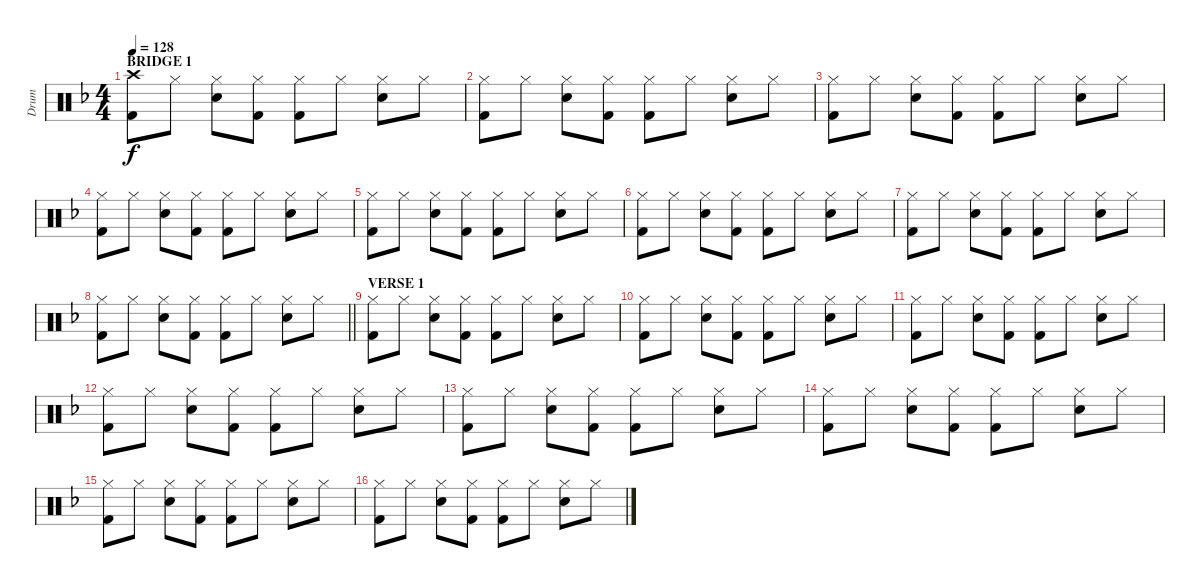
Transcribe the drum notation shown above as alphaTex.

\track ("Drum" "Drum") {instrument percussion}
\staff {score}
\articulation defaults
\ts (4 4)
\section ("" "BRIDGE 1")
\tempo 128
\clef neutral
\ks f
("Crash high (hit)" "Kick (hit) 2").8{dy f} "Hi-Hat (closed)".8 ("Hi-Hat (closed)" "Electric Snare (hit)").8 ("Hi-Hat (closed)" "Kick (hit) 2").8 ("Hi-Hat (closed)" "Kick (hit) 2").8 "Hi-Hat (closed)".8 ("Hi-Hat (closed)" "Electric Snare (hit)").8 "Hi-Hat (closed)".8 |
("Hi-Hat (closed)" "Kick (hit) 2").8 "Hi-Hat (closed)".8 ("Hi-Hat (closed)" "Electric Snare (hit)").8 ("Hi-Hat (closed)" "Kick (hit) 2").8 ("Hi-Hat (closed)" "Kick (hit) 2").8 "Hi-Hat (closed)".8 ("Hi-Hat (closed)" "Electric Snare (hit)").8 "Hi-Hat (closed)".8 |
("Hi-Hat (closed)" "Kick (hit) 2").8 "Hi-Hat (closed)".8 ("Hi-Hat (closed)" "Electric Snare (hit)").8 ("Hi-Hat (closed)" "Kick (hit) 2").8 ("Hi-Hat (closed)" "Kick (hit) 2").8 "Hi-Hat (closed)".8 ("Hi-Hat (closed)" "Electric Snare (hit)").8 "Hi-Hat (closed)".8 |
("Hi-Hat (closed)" "Kick (hit) 2").8 "Hi-Hat (closed)".8 ("Hi-Hat (closed)" "Electric Snare (hit)").8 ("Hi-Hat (closed)" "Kick (hit) 2").8 ("Hi-Hat (closed)" "Kick (hit) 2").8 "Hi-Hat (closed)".8 ("Hi-Hat (closed)" "Electric Snare (hit)").8 "Hi-Hat (closed)".8 |
("Hi-Hat (closed)" "Kick (hit) 2").8 "Hi-Hat (closed)".8 ("Hi-Hat (closed)" "Electric Snare (hit)").8 ("Hi-Hat (closed)" "Kick (hit) 2").8 ("Hi-Hat (closed)" "Kick (hit) 2").8 "Hi-Hat (closed)".8 ("Hi-Hat (closed)" "Electric Snare (hit)").8 "Hi-Hat (closed)".8 |
("Hi-Hat (closed)" "Kick (hit) 2").8 "Hi-Hat (closed)".8 ("Hi-Hat (closed)" "Electric Snare (hit)").8 ("Hi-Hat (closed)" "Kick (hit) 2").8 ("Hi-Hat (closed)" "Kick (hit) 2").8 "Hi-Hat (closed)".8 ("Hi-Hat (closed)" "Electric Snare (hit)").8 "Hi-Hat (closed)".8 |
("Hi-Hat (closed)" "Kick (hit) 2").8 "Hi-Hat (closed)".8 ("Hi-Hat (closed)" "Electric Snare (hit)").8 ("Hi-Hat (closed)" "Kick (hit) 2").8 ("Hi-Hat (closed)" "Kick (hit) 2").8 "Hi-Hat (closed)".8 ("Hi-Hat (closed)" "Electric Snare (hit)").8 "Hi-Hat (closed)".8 |
\barLineRight lightlight
("Hi-Hat (closed)" "Kick (hit) 2").8 "Hi-Hat (closed)".8 ("Hi-Hat (closed)" "Electric Snare (hit)").8 ("Hi-Hat (closed)" "Kick (hit) 2").8 ("Hi-Hat (closed)" "Kick (hit) 2").8 "Hi-Hat (closed)".8 ("Hi-Hat (closed)" "Electric Snare (hit)").8 "Hi-Hat (closed)".8 |
\section ("" "VERSE 1")
("Hi-Hat (closed)" "Kick (hit) 2").8 "Hi-Hat (closed)".8 ("Hi-Hat (closed)" "Electric Snare (hit)").8 ("Hi-Hat (closed)" "Kick (hit) 2").8 ("Hi-Hat (closed)" "Kick (hit) 2").8 "Hi-Hat (closed)".8 ("Hi-Hat (closed)" "Electric Snare (hit)").8 "Hi-Hat (closed)".8 |
("Hi-Hat (closed)" "Kick (hit) 2").8 "Hi-Hat (closed)".8 ("Hi-Hat (closed)" "Electric Snare (hit)").8 ("Hi-Hat (closed)" "Kick (hit) 2").8 ("Hi-Hat (closed)" "Kick (hit) 2").8 "Hi-Hat (closed)".8 ("Hi-Hat (closed)" "Electric Snare (hit)").8 "Hi-Hat (closed)".8 |
("Hi-Hat (closed)" "Kick (hit) 2").8 "Hi-Hat (closed)".8 ("Hi-Hat (closed)" "Electric Snare (hit)").8 ("Hi-Hat (closed)" "Kick (hit) 2").8 ("Hi-Hat (closed)" "Kick (hit) 2").8 "Hi-Hat (closed)".8 ("Hi-Hat (closed)" "Electric Snare (hit)").8 "Hi-Hat (closed)".8 |
("Hi-Hat (closed)" "Kick (hit) 2").8 "Hi-Hat (closed)".8 ("Hi-Hat (closed)" "Electric Snare (hit)").8 ("Hi-Hat (closed)" "Kick (hit) 2").8 ("Hi-Hat (closed)" "Kick (hit) 2").8 "Hi-Hat (closed)".8 ("Hi-Hat (closed)" "Electric Snare (hit)").8 "Hi-Hat (closed)".8 |
("Hi-Hat (closed)" "Kick (hit) 2").8 "Hi-Hat (closed)".8 ("Hi-Hat (closed)" "Electric Snare (hit)").8 ("Hi-Hat (closed)" "Kick (hit) 2").8 ("Hi-Hat (closed)" "Kick (hit) 2").8 "Hi-Hat (closed)".8 ("Hi-Hat (closed)" "Electric Snare (hit)").8 "Hi-Hat (closed)".8 |
("Hi-Hat (closed)" "Kick (hit) 2").8 "Hi-Hat (closed)".8 ("Hi-Hat (closed)" "Electric Snare (hit)").8 ("Hi-Hat (closed)" "Kick (hit) 2").8 ("Hi-Hat (closed)" "Kick (hit) 2").8 "Hi-Hat (closed)".8 ("Hi-Hat (closed)" "Electric Snare (hit)").8 "Hi-Hat (closed)".8 |
("Hi-Hat (closed)" "Kick (hit) 2").8 "Hi-Hat (closed)".8 ("Hi-Hat (closed)" "Electric Snare (hit)").8 ("Hi-Hat (closed)" "Kick (hit) 2").8 ("Hi-Hat (closed)" "Kick (hit) 2").8 "Hi-Hat (closed)".8 ("Hi-Hat (closed)" "Electric Snare (hit)").8 "Hi-Hat (closed)".8 |
("Hi-Hat (closed)" "Kick (hit) 2").8 "Hi-Hat (closed)".8 ("Hi-Hat (closed)" "Electric Snare (hit)").8 ("Hi-Hat (closed)" "Kick (hit) 2").8 ("Hi-Hat (closed)" "Kick (hit) 2").8 "Hi-Hat (closed)".8 ("Hi-Hat (closed)" "Electric Snare (hit)").8 "Hi-Hat (closed)".8
